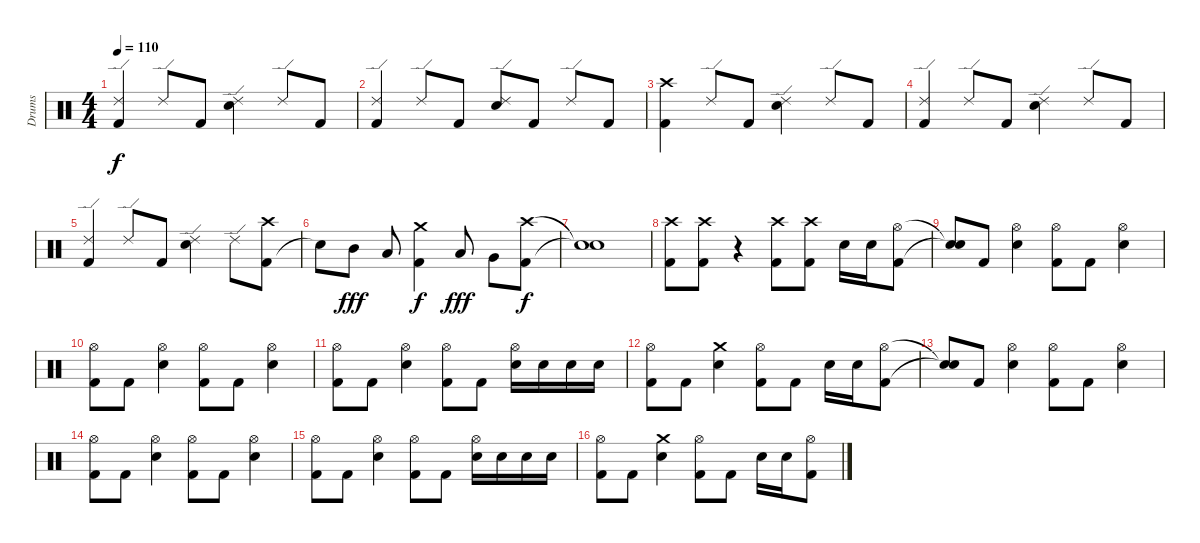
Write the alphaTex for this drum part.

\track ("Drums" "Drums") {instrument percussion}
\staff {score}
\articulation defaults
\ts (4 4)
\tempo 110
\clef neutral
\ks c
("Kick (hit) 2" "Ride (edge) 2").4{dy f} "Ride (edge) 2".8 "Kick (hit) 2".8 ("Ride (edge) 2" "Snare (hit) 2").4 "Ride (edge) 2".8 "Kick (hit) 2".8 |
("Kick (hit) 2" "Ride (edge) 2").4 "Ride (edge) 2".8 "Kick (hit) 2".8 ("Ride (edge) 2" "Snare (hit) 2").8 "Kick (hit) 2".8 "Ride (edge) 2".8 "Kick (hit) 2".8 |
("Kick (hit) 2" "Crash high (hit)").4 "Ride (edge) 2".8 "Kick (hit) 2".8 ("Ride (edge) 2" "Snare (hit) 2").4 "Ride (edge) 2".8 "Kick (hit) 2".8 |
("Kick (hit) 2" "Ride (edge) 2").4 "Ride (edge) 2".8 "Kick (hit) 2".8 ("Ride (edge) 2" "Snare (hit) 2").4 "Ride (edge) 2".8 "Kick (hit) 2".8 |
("Kick (hit) 2" "Ride (edge) 2").4 "Ride (edge) 2".8 "Kick (hit) 2".8 ("Ride (edge) 2" "Snare (hit) 2").4 "Ride (edge) 2".8 ("Kick (hit) 2" "Crash high (hit)").8 |
"Snare (hit)"{t}.8 "Mid Tom (hit)".8{dy fff} "Low Tom (hit)".8 ("Kick (hit) 2" "Crash medium (hit)").4{dy f} "Low Tom (hit)".8{dy fff} "Very Low Tom (hit)".8 ("Kick (hit) 2" "Crash high (hit)").8{dy f} |
("Snare (hit)"{t} "Snare (hit)"{t}).1 |
("Kick (hit) 2" "Crash high (hit)").8 ("Kick (hit) 2" "Crash high (hit)").8 r.4 ("Kick (hit) 2" "Crash high (hit)").8 ("Kick (hit) 2" "Crash high (hit)").8 "Snare (hit) 2".16 "Snare (hit) 2".16 ("Kick (hit) 2" "Hi-Hat (open)").8 |
("Snare (hit)"{t} "Snare (hit)"{t}).8 "Kick (hit) 2".8 ("Hi-Hat (open)" "Snare (hit) 2").4 ("Kick (hit) 2" "Hi-Hat (open)").8 "Kick (hit) 2".8 ("Hi-Hat (open)" "Snare (hit) 2").4 |
("Kick (hit) 2" "Hi-Hat (open)").8 "Kick (hit) 2".8 ("Hi-Hat (open)" "Snare (hit) 2").4 ("Kick (hit) 2" "Hi-Hat (open)").8 "Kick (hit) 2".8 ("Hi-Hat (open)" "Snare (hit) 2").4 |
("Kick (hit) 2" "Hi-Hat (open)").8 "Kick (hit) 2".8 ("Hi-Hat (open)" "Snare (hit) 2").4 ("Kick (hit) 2" "Hi-Hat (open)").8 "Kick (hit) 2".8 ("Hi-Hat (open)" "Snare (hit) 2").16 "Snare (hit) 2".16 "Snare (hit) 2".16 "Snare (hit) 2".16 |
("Kick (hit) 2" "Hi-Hat (open)").8 "Kick (hit) 2".8 ("Crash medium (hit)" "Snare (hit) 2").4 ("Kick (hit) 2" "Hi-Hat (open)").8 "Kick (hit) 2".8 "Snare (hit) 2".16 "Snare (hit) 2".16 ("Kick (hit) 2" "Hi-Hat (open)").8 |
("Snare (hit)"{t} "Snare (hit)"{t}).8 "Kick (hit) 2".8 ("Hi-Hat (open)" "Snare (hit) 2").4 ("Kick (hit) 2" "Hi-Hat (open)").8 "Kick (hit) 2".8 ("Hi-Hat (open)" "Snare (hit) 2").4 |
("Kick (hit) 2" "Hi-Hat (open)").8 "Kick (hit) 2".8 ("Hi-Hat (open)" "Snare (hit) 2").4 ("Kick (hit) 2" "Hi-Hat (open)").8 "Kick (hit) 2".8 ("Hi-Hat (open)" "Snare (hit) 2").4 |
("Kick (hit) 2" "Hi-Hat (open)").8 "Kick (hit) 2".8 ("Hi-Hat (open)" "Snare (hit) 2").4 ("Kick (hit) 2" "Hi-Hat (open)").8 "Kick (hit) 2".8 ("Hi-Hat (open)" "Snare (hit) 2").16 "Snare (hit) 2".16 "Snare (hit) 2".16 "Snare (hit) 2".16 |
("Kick (hit) 2" "Hi-Hat (open)").8 "Kick (hit) 2".8 ("Crash medium (hit)" "Snare (hit) 2").4 ("Kick (hit) 2" "Hi-Hat (open)").8 "Kick (hit) 2".8 "Snare (hit) 2".16 "Snare (hit) 2".16 ("Kick (hit) 2" "Hi-Hat (open)").8
